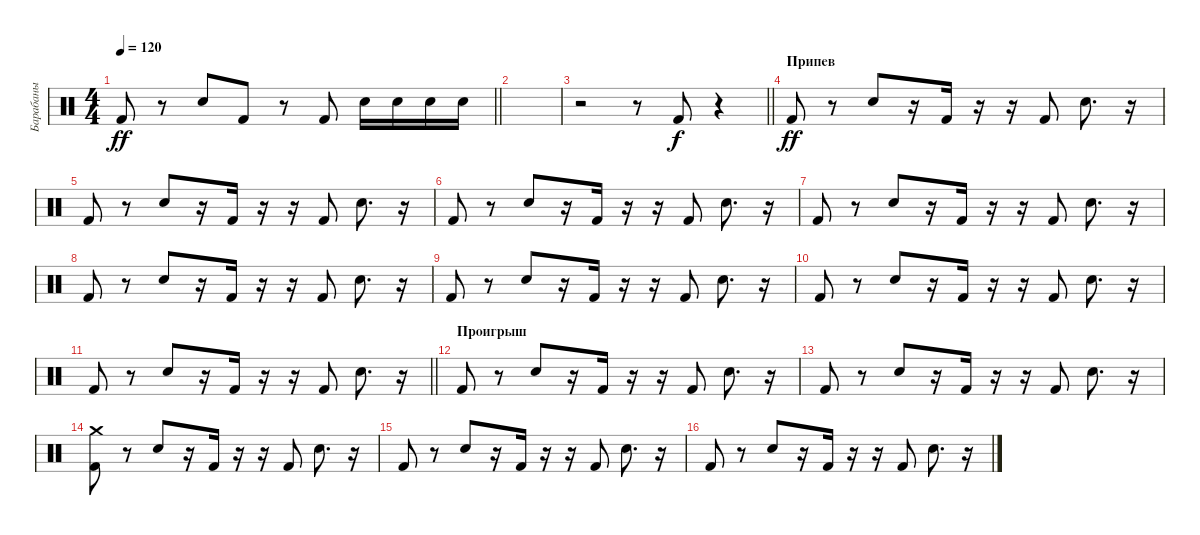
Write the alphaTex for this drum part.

\track ("Барабаны" "Барабаны") {instrument percussion}
\staff {score}
\articulation defaults
\ts (4 4)
\tempo 120
\clef neutral
\barLineRight lightlight
\ks c "Kick (hit) 2".8{dy ff}
r.8 "Electric Snare (hit)".8 "Kick (hit) 2".8 r.8 "Kick (hit) 2".8 "Electric Snare (hit)".16 "Electric Snare (hit)".16 "Electric Snare (hit)".16 "Electric Snare (hit)".16 |
|
\barLineRight lightlight
r.2 r.8 "Kick (hit) 2".8{dy f} r.4 |
\section ("" "Припев")
"Kick (hit) 2".8{dy ff} r.8 "Snare (hit) 2".8 r.16 "Kick (hit) 2".16 r.16 r.16 "Kick (hit) 2".8 "Snare (hit) 2".8{d} r.16 |
"Kick (hit) 2".8 r.8 "Snare (hit) 2".8 r.16 "Kick (hit) 2".16 r.16 r.16 "Kick (hit) 2".8 "Snare (hit) 2".8{d} r.16 |
"Kick (hit) 2".8 r.8 "Snare (hit) 2".8 r.16 "Kick (hit) 2".16 r.16 r.16 "Kick (hit) 2".8 "Snare (hit) 2".8{d} r.16 |
"Kick (hit) 2".8 r.8 "Snare (hit) 2".8 r.16 "Kick (hit) 2".16 r.16 r.16 "Kick (hit) 2".8 "Snare (hit) 2".8{d} r.16 |
"Kick (hit) 2".8 r.8 "Snare (hit) 2".8 r.16 "Kick (hit) 2".16 r.16 r.16 "Kick (hit) 2".8 "Snare (hit) 2".8{d} r.16 |
"Kick (hit) 2".8 r.8 "Snare (hit) 2".8 r.16 "Kick (hit) 2".16 r.16 r.16 "Kick (hit) 2".8 "Snare (hit) 2".8{d} r.16 |
"Kick (hit) 2".8 r.8 "Snare (hit) 2".8 r.16 "Kick (hit) 2".16 r.16 r.16 "Kick (hit) 2".8 "Snare (hit) 2".8{d} r.16 |
\barLineRight lightlight "Kick (hit) 2".8
r.8 "Snare (hit) 2".8 r.16 "Kick (hit) 2".16 r.16 r.16 "Kick (hit) 2".8 "Snare (hit) 2".8{d} r.16 |
\section ("" "Проигрыш")
"Kick (hit) 2".8 r.8 "Snare (hit) 2".8 r.16 "Kick (hit) 2".16 r.16 r.16 "Kick (hit) 2".8 "Snare (hit) 2".8{d} r.16 |
"Kick (hit) 2".8 r.8 "Snare (hit) 2".8 r.16 "Kick (hit) 2".16 r.16 r.16 "Kick (hit) 2".8 "Snare (hit) 2".8{d} r.16 |
("Crash medium (hit)" "Kick (hit) 2").8 r.8 "Snare (hit) 2".8 r.16 "Kick (hit) 2".16 r.16 r.16 "Kick (hit) 2".8 "Snare (hit) 2".8{d} r.16 |
"Kick (hit) 2".8 r.8 "Snare (hit) 2".8 r.16 "Kick (hit) 2".16 r.16 r.16 "Kick (hit) 2".8 "Snare (hit) 2".8{d} r.16 |
"Kick (hit) 2".8 r.8 "Snare (hit) 2".8 r.16 "Kick (hit) 2".16 r.16 r.16 "Kick (hit) 2".8 "Snare (hit) 2".8{d} r.16
